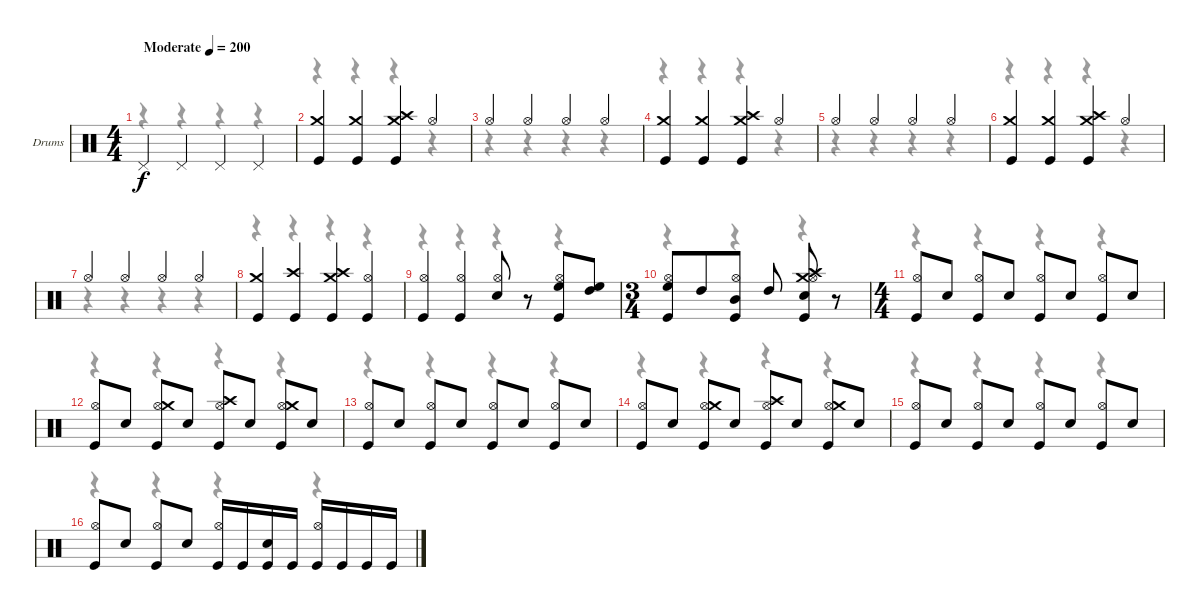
\bracketExtendMode nobrackets
\firstSystemTrackNameOrientation horizontal
\otherSystemsTrackNameOrientation horizontal
\track ("Drumkit" "Drums") {instrument percussion}
\staff {score}
\articulation defaults
\voice
\ts (4 4)
\beaming (8 2 2 2 2)
\tempo (200 "Moderate")
\clef neutral
\ks c "Pedal Hi-Hat (hit)".4{dy f} "Pedal Hi-Hat (hit)".4 "Pedal Hi-Hat (hit)".4 "Pedal Hi-Hat (hit)".4
|
("Kick (hit)" "Crash medium (hit)").4 ("Kick (hit)" "Crash medium (hit)").4 ("Kick (hit)" "Crash high (hit)" "Crash medium (hit)").4 "Hi-Hat (open)".4 |
"Hi-Hat (open)".4 "Hi-Hat (open)".4 "Hi-Hat (open)".4 "Hi-Hat (open)".4 |
("Kick (hit)" "Crash medium (hit)").4 ("Kick (hit)" "Crash medium (hit)").4 ("Kick (hit)" "Crash high (hit)" "Crash medium (hit)").4 "Hi-Hat (open)".4 |
"Hi-Hat (open)".4 "Hi-Hat (open)".4 "Hi-Hat (open)".4 "Hi-Hat (open)".4 |
("Kick (hit)" "Crash medium (hit)").4 ("Kick (hit)" "Crash medium (hit)").4 ("Kick (hit)" "Crash high (hit)" "Crash medium (hit)").4 "Hi-Hat (open)".4 |
"Hi-Hat (open)".4 "Hi-Hat (open)".4 "Hi-Hat (open)".4 "Hi-Hat (open)".4 |
("Kick (hit)" "Crash medium (hit)").4 ("Kick (hit)" "Crash high (hit)").4 ("Kick (hit)" "Crash medium (hit)" "Crash high (hit)").4 ("Kick (hit)" "Hi-Hat (open)").4 |
("Kick (hit)" "Hi-Hat (open)").4 ("Kick (hit)" "Hi-Hat (open)").4 ("Hi-Hat (open)" "Snare (hit) 2").8 r.8 ("Hi-Hat (open)" "Kick (hit)" "High Floor Tom (hit)").8 ("High Floor Tom (hit)" "High Tom (hit)").8 |
\ts (3 4)
\beaming (8 3 1 1 1)
("Kick (hit)" "High Floor Tom (hit)" "Hi-Hat (open)").8 "High Tom (hit)".8 ("Kick (hit)" "Mid Tom (hit)" "Hi-Hat (open)").8 "High Tom (hit)".8 ("Kick (hit)" "Snare (hit) 2" "Crash medium (hit)" "Hi-Hat (open)" "Crash high (hit)").8 r.8 |
\ts (4 4)
\beaming (8 2 2 2 2)
("Hi-Hat (open)" "Kick (hit)").8 "Snare (hit) 2".8 ("Hi-Hat (open)" "Kick (hit)").8 "Snare (hit) 2".8 ("Hi-Hat (open)" "Kick (hit)").8 "Snare (hit) 2".8 ("Hi-Hat (open)" "Kick (hit)").8 "Snare (hit) 2".8 |
("Kick (hit)" "Hi-Hat (open)").8 "Snare (hit) 2".8 ("Kick (hit)" "Hi-Hat (open)" "Crash medium (hit)").8 "Snare (hit) 2".8 ("Kick (hit)" "Hi-Hat (open)" "Crash high (hit)").8 "Snare (hit) 2".8 ("Kick (hit)" "Hi-Hat (open)" "Crash medium (hit)").8 "Snare (hit) 2".8 |
("Hi-Hat (open)" "Kick (hit)").8 "Snare (hit) 2".8 ("Hi-Hat (open)" "Kick (hit)").8 "Snare (hit) 2".8 ("Hi-Hat (open)" "Kick (hit)").8 "Snare (hit) 2".8 ("Hi-Hat (open)" "Kick (hit)").8 "Snare (hit) 2".8 |
("Kick (hit)" "Hi-Hat (open)").8 "Snare (hit) 2".8 ("Kick (hit)" "Hi-Hat (open)" "Crash medium (hit)").8 "Snare (hit) 2".8 ("Kick (hit)" "Hi-Hat (open)" "Crash high (hit)").8 "Snare (hit) 2".8 ("Kick (hit)" "Hi-Hat (open)" "Crash medium (hit)").8 "Snare (hit) 2".8 |
("Hi-Hat (open)" "Kick (hit)").8 "Snare (hit) 2".8 ("Hi-Hat (open)" "Kick (hit)").8 "Snare (hit) 2".8 ("Hi-Hat (open)" "Kick (hit)").8 "Snare (hit) 2".8 ("Hi-Hat (open)" "Kick (hit)").8 "Snare (hit) 2".8 |
("Kick (hit)" "Hi-Hat (open)").8 "Snare (hit) 2".8 ("Kick (hit)" "Hi-Hat (open)").8 "Snare (hit) 2".8 ("Kick (hit)" "Hi-Hat (open)").16 "Kick (hit)".16 ("Kick (hit)" "Snare (hit) 2").16 "Kick (hit)".16 ("Kick (hit)" "Hi-Hat (open)").16 "Kick (hit)".16 "Kick (hit)".16 "Kick (hit)".16
\voice
\clef neutral
\ottava regular
\simile none
\ks c
r.4{dy mf} r.4 r.4 r.4 |
r.4 r.4 r.4 r.4 |
r.4 r.4 r.4 r.4 |
r.4 r.4 r.4 r.4 |
r.4 r.4 r.4 r.4 |
r.4 r.4 r.4 r.4 |
r.4 r.4 r.4 r.4 |
r.4 r.4 r.4 r.4 |
r.4 r.4 r.4 r.4 |
r.4 r.4 r.4 |
r.4 r.4 r.4 r.4 |
r.4 r.4 r.4 r.4 |
r.4 r.4 r.4 r.4 |
r.4 r.4 r.4 r.4 |
r.4 r.4 r.4 r.4 |
r.4 r.4 r.4 r.4
